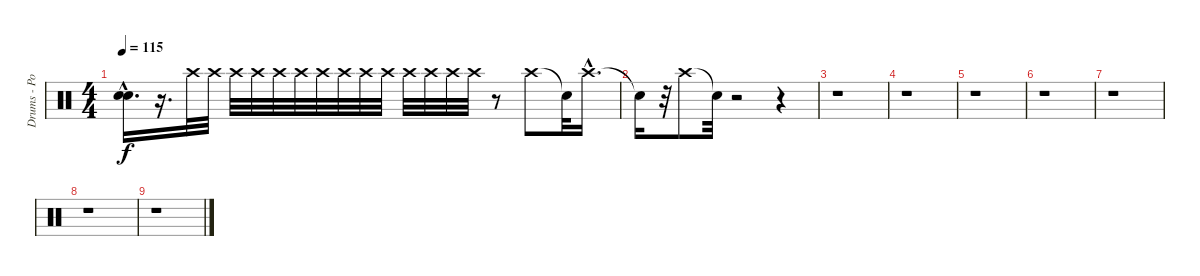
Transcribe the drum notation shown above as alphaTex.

\track ("Drums - Portnoy" "Drums - Po") {instrument percussion}
\staff {score}
\articulation defaults
\ts (4 4)
\tempo 115
\clef neutral
\ks c
("Snare (hit)"{hac t} "Snare (hit)"{hac t}).16{d dy f} r.16{d} "Crash high (hit)".32 "Crash high (hit)".32 "Crash high (hit)".32 "Crash high (hit)".32 "Crash high (hit)".32 "Crash high (hit)".32 "Crash high (hit)".32 "Crash high (hit)".32 "Crash high (hit)".32 "Crash high (hit)".32 "Crash high (hit)".32 "Crash high (hit)".32 "Crash high (hit)".32 "Crash high (hit)".32 r.8 "Crash high (hit)".8 "Snare (hit)"{t}.32 "Crash high (hit)"{hac}.16{d} |
"Snare (hit)"{t}.16 r.32 "Crash high (hit)".8 "Snare (hit)"{t}.32 r.2 r.4 |
r.1 |
r.1 |
r.1 |
r.1 |
r.1 |
r.1 |
r.1
